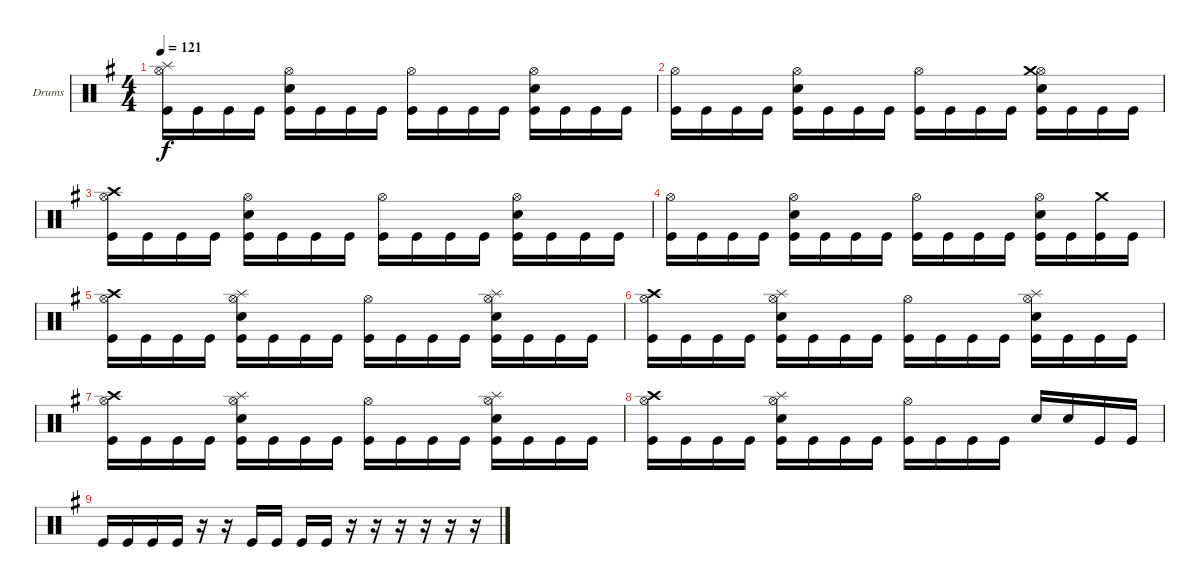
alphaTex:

\bracketExtendMode groupsimilarinstruments
\firstSystemTrackNameOrientation horizontal
\otherSystemsTrackNameOrientation horizontal
\track ("Drumkit" "Drums") {instrument percussion}
\staff {score}
\articulation defaults
\ts (4 4)
\tempo 121
\clef neutral
\scale
0.333333
\ks g
("Hi-Hat (open)" "Kick (hit)" "Splash (hit)").16{dy f} "Kick (hit)".16 "Kick (hit)".16 "Kick (hit)".16 ("Hi-Hat (open)" "Snare (hit) 2" "Kick (hit)").16 "Kick (hit)".16 "Kick (hit)".16 "Kick (hit)".16 ("Hi-Hat (open)" "Kick (hit)").16 "Kick (hit)".16 "Kick (hit)".16 "Kick (hit)".16 ("Hi-Hat (open)" "Snare (hit) 2" "Kick (hit)").16 "Kick (hit)".16 "Kick (hit)".16 "Kick (hit)".16 |
\scale
0.333333 ("Hi-Hat (open)" "Kick (hit)").16 "Kick (hit)".16 "Kick (hit)".16 "Kick (hit)".16 ("Hi-Hat (open)" "Snare (hit) 2" "Kick (hit)").16 "Kick (hit)".16 "Kick (hit)".16 "Kick (hit)".16 ("Hi-Hat (open)" "Kick (hit)").16 "Kick (hit)".16 "Kick (hit)".16 "Kick (hit)".16 ("Hi-Hat (open)" "Snare (hit) 2" "Kick (hit)" "Crash medium (hit)").16 "Kick (hit)".16 "Kick (hit)".16 "Kick (hit)".16 |
\scale
0.333333 ("Hi-Hat (open)" "Kick (hit)" "Crash high (hit)").16 "Kick (hit)".16 "Kick (hit)".16 "Kick (hit)".16 ("Hi-Hat (open)" "Snare (hit) 2" "Kick (hit)").16 "Kick (hit)".16 "Kick (hit)".16 "Kick (hit)".16 ("Hi-Hat (open)" "Kick (hit)").16 "Kick (hit)".16 "Kick (hit)".16 "Kick (hit)".16 ("Hi-Hat (open)" "Snare (hit) 2" "Kick (hit)").16 "Kick (hit)".16 "Kick (hit)".16 "Kick (hit)".16 |
\scale
0.333333 ("Hi-Hat (open)" "Kick (hit)").16 "Kick (hit)".16 "Kick (hit)".16 "Kick (hit)".16 ("Hi-Hat (open)" "Snare (hit) 2" "Kick (hit)").16 "Kick (hit)".16 "Kick (hit)".16 "Kick (hit)".16 ("Hi-Hat (open)" "Kick (hit)").16 "Kick (hit)".16 "Kick (hit)".16 "Kick (hit)".16 ("Hi-Hat (open)" "Snare (hit) 2" "Kick (hit)").16 "Kick (hit)".16 ("Kick (hit)" "Crash medium (hit)").16 "Kick (hit)".16 |
\scale
0.333333 ("Hi-Hat (open)" "Kick (hit)" "Crash high (hit)").16 "Kick (hit)".16 "Kick (hit)".16 "Kick (hit)".16 ("Hi-Hat (open)" "Snare (hit) 2" "Kick (hit)" "Splash (hit)").16 "Kick (hit)".16 "Kick (hit)".16 "Kick (hit)".16 ("Hi-Hat (open)" "Kick (hit)").16 "Kick (hit)".16 "Kick (hit)".16 "Kick (hit)".16 ("Hi-Hat (open)" "Snare (hit) 2" "Kick (hit)" "Splash (hit)").16 "Kick (hit)".16 "Kick (hit)".16 "Kick (hit)".16 |
\scale
0.333333 ("Hi-Hat (open)" "Kick (hit)" "Crash high (hit)").16 "Kick (hit)".16 "Kick (hit)".16 "Kick (hit)".16 ("Hi-Hat (open)" "Snare (hit) 2" "Kick (hit)" "Splash (hit)").16 "Kick (hit)".16 "Kick (hit)".16 "Kick (hit)".16 ("Hi-Hat (open)" "Kick (hit)").16 "Kick (hit)".16 "Kick (hit)".16 "Kick (hit)".16 ("Hi-Hat (open)" "Snare (hit) 2" "Kick (hit)" "Splash (hit)").16 "Kick (hit)".16 "Kick (hit)".16 "Kick (hit)".16 |
\scale
0.333333 ("Hi-Hat (open)" "Kick (hit)" "Crash high (hit)").16 "Kick (hit)".16 "Kick (hit)".16 "Kick (hit)".16 ("Hi-Hat (open)" "Snare (hit) 2" "Kick (hit)" "Splash (hit)").16 "Kick (hit)".16 "Kick (hit)".16 "Kick (hit)".16 ("Hi-Hat (open)" "Kick (hit)").16 "Kick (hit)".16 "Kick (hit)".16 "Kick (hit)".16 ("Hi-Hat (open)" "Snare (hit) 2" "Kick (hit)" "Splash (hit)").16 "Kick (hit)".16 "Kick (hit)".16 "Kick (hit)".16 |
("Hi-Hat (open)" "Kick (hit)" "Crash high (hit)").16 "Kick (hit)".16 "Kick (hit)".16 "Kick (hit)".16 ("Hi-Hat (open)" "Snare (hit) 2" "Kick (hit)" "Splash (hit)").16 "Kick (hit)".16 "Kick (hit)".16 "Kick (hit)".16 ("Hi-Hat (open)" "Kick (hit)").16 "Kick (hit)".16 "Kick (hit)".16 "Kick (hit)".16 "Snare (hit) 2".16 "Snare (hit) 2".16 "Kick (hit)".16 "Kick (hit)".16 |
"Kick (hit)".16 "Kick (hit)".16 "Kick (hit)".16 "Kick (hit)".16 r.16 r.16 "Kick (hit)".16 "Kick (hit)".16 "Kick (hit)".16 "Kick (hit)".16 r.16 r.16 r.16 r.16 r.16 r.16
